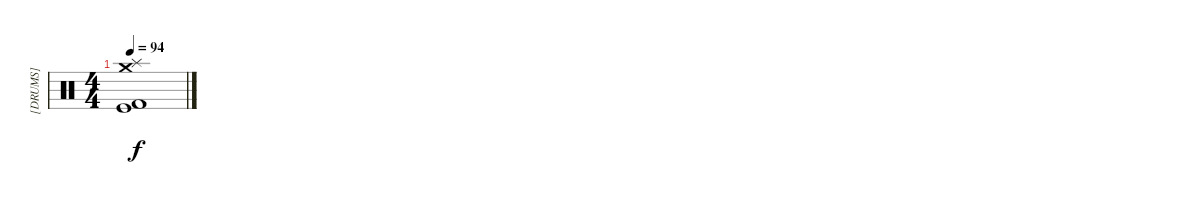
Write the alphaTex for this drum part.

\track ("[DRUMS]" "[DRUMS]") {instrument percussion}
\staff {score}
\articulation defaults
\ts (4 4)
\tempo 94
\clef neutral
\ks c
("Crash medium (hit)" "Splash (hit)" "Kick (hit) 2" "Kick (hit)").1{dy f}
